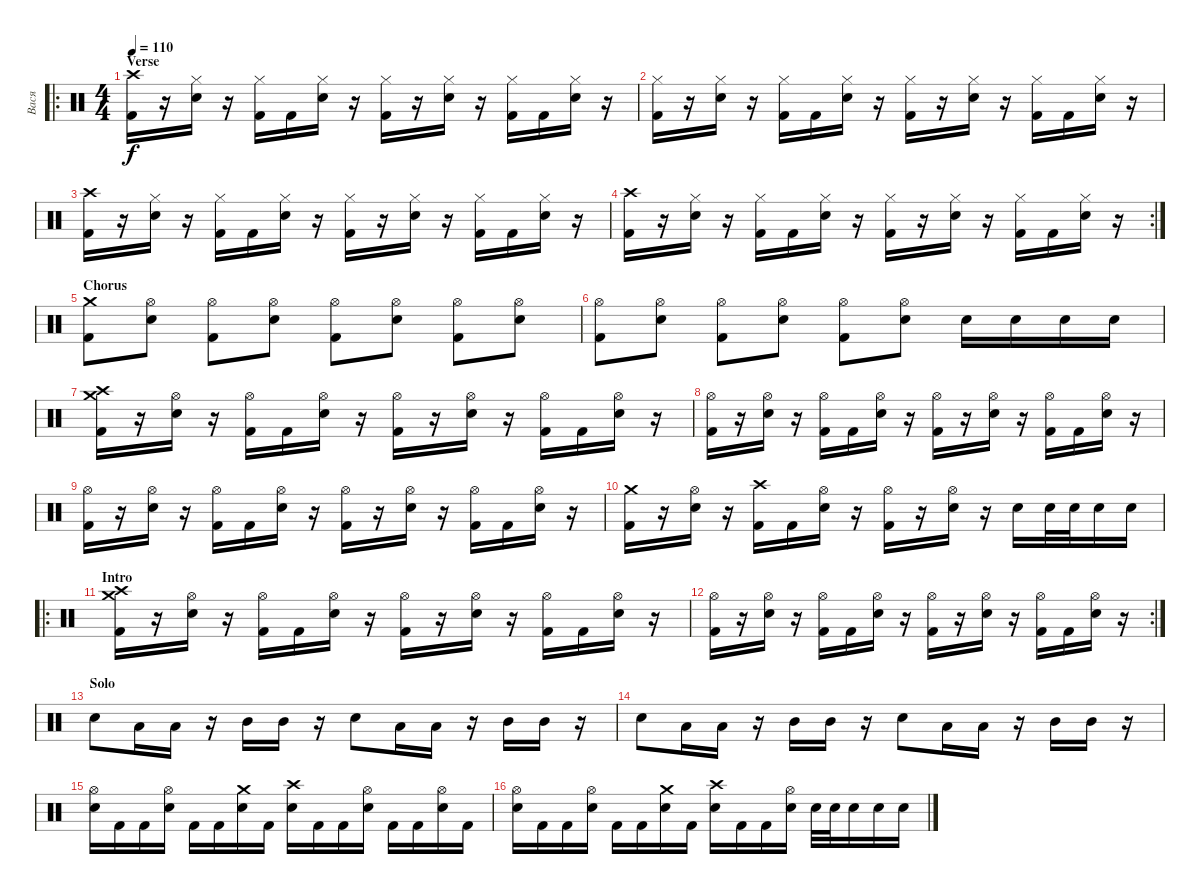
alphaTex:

\track ("Вася" "Вася") {instrument percussion}
\staff {score}
\articulation defaults
\ro
\ts (4 4)
\section ("" "Verse")
\tempo 110
\clef neutral
\ks c
("Crash high (hit)" "Kick (hit) 2").16{dy f} r.16 ("Hi-Hat (closed)" "Electric Snare (hit)").16 r.16 ("Hi-Hat (closed)" "Kick (hit) 2").16 "Kick (hit) 2".16 ("Hi-Hat (closed)" "Electric Snare (hit)").16 r.16 ("Hi-Hat (closed)" "Kick (hit) 2").16 r.16 ("Hi-Hat (closed)" "Electric Snare (hit)").16 r.16 ("Hi-Hat (closed)" "Kick (hit) 2").16 "Kick (hit) 2".16 ("Hi-Hat (closed)" "Electric Snare (hit)").16 r.16 |
("Hi-Hat (closed)" "Kick (hit) 2").16 r.16 ("Hi-Hat (closed)" "Electric Snare (hit)").16 r.16 ("Hi-Hat (closed)" "Kick (hit) 2").16 "Kick (hit) 2".16 ("Hi-Hat (closed)" "Electric Snare (hit)").16 r.16 ("Hi-Hat (closed)" "Kick (hit) 2").16 r.16 ("Hi-Hat (closed)" "Electric Snare (hit)").16 r.16 ("Hi-Hat (closed)" "Kick (hit) 2").16 "Kick (hit) 2".16 ("Hi-Hat (closed)" "Electric Snare (hit)").16 r.16 |
("Crash high (hit)" "Kick (hit) 2").16 r.16 ("Hi-Hat (closed)" "Electric Snare (hit)").16 r.16 ("Hi-Hat (closed)" "Kick (hit) 2").16 "Kick (hit) 2".16 ("Hi-Hat (closed)" "Electric Snare (hit)").16 r.16 ("Hi-Hat (closed)" "Kick (hit) 2").16 r.16 ("Hi-Hat (closed)" "Electric Snare (hit)").16 r.16 ("Hi-Hat (closed)" "Kick (hit) 2").16 "Kick (hit) 2".16 ("Hi-Hat (closed)" "Electric Snare (hit)").16 r.16 |
\rc 2
("Crash high (hit)" "Kick (hit) 2").16 r.16 ("Hi-Hat (closed)" "Electric Snare (hit)").16 r.16 ("Hi-Hat (closed)" "Kick (hit) 2").16 "Kick (hit) 2".16 ("Hi-Hat (closed)" "Electric Snare (hit)").16 r.16 ("Hi-Hat (closed)" "Kick (hit) 2").16 r.16 ("Hi-Hat (closed)" "Electric Snare (hit)").16 r.16 ("Hi-Hat (closed)" "Kick (hit) 2").16 "Kick (hit) 2".16 ("Hi-Hat (closed)" "Electric Snare (hit)").16 r.16 |
\section ("" "Chorus")
("Crash medium (hit)" "Kick (hit) 2").8 ("Hi-Hat (open)" "Electric Snare (hit)").8 ("Hi-Hat (open)" "Kick (hit) 2").8 ("Hi-Hat (open)" "Electric Snare (hit)").8 ("Hi-Hat (open)" "Kick (hit) 2").8 ("Hi-Hat (open)" "Electric Snare (hit)").8 ("Hi-Hat (open)" "Kick (hit) 2").8 ("Hi-Hat (open)" "Electric Snare (hit)").8 |
("Hi-Hat (open)" "Kick (hit) 2").8 ("Hi-Hat (open)" "Electric Snare (hit)").8 ("Hi-Hat (open)" "Kick (hit) 2").8 ("Hi-Hat (open)" "Electric Snare (hit)").8 ("Hi-Hat (open)" "Kick (hit) 2").8 ("Hi-Hat (open)" "Electric Snare (hit)").8 "Electric Snare (hit)".16 "Electric Snare (hit)".16 "Electric Snare (hit)".16 "Electric Snare (hit)".16 |
("Crash medium (hit)" "Crash high (hit)" "Kick (hit) 2").16 r.16 ("Hi-Hat (open)" "Electric Snare (hit)").16 r.16 ("Hi-Hat (open)" "Kick (hit) 2").16 "Kick (hit) 2".16 ("Hi-Hat (open)" "Electric Snare (hit)").16 r.16 ("Hi-Hat (open)" "Kick (hit) 2").16 r.16 ("Hi-Hat (open)" "Electric Snare (hit)").16 r.16 ("Hi-Hat (open)" "Kick (hit) 2").16 "Kick (hit) 2".16 ("Hi-Hat (open)" "Electric Snare (hit)").16 r.16 |
("Hi-Hat (open)" "Kick (hit) 2").16 r.16 ("Hi-Hat (open)" "Electric Snare (hit)").16 r.16 ("Hi-Hat (open)" "Kick (hit) 2").16 "Kick (hit) 2".16 ("Hi-Hat (open)" "Electric Snare (hit)").16 r.16 ("Hi-Hat (open)" "Kick (hit) 2").16 r.16 ("Hi-Hat (open)" "Electric Snare (hit)").16 r.16 ("Hi-Hat (open)" "Kick (hit) 2").16 "Kick (hit) 2".16 ("Hi-Hat (open)" "Electric Snare (hit)").16 r.16 |
("Hi-Hat (open)" "Kick (hit) 2").16 r.16 ("Hi-Hat (open)" "Electric Snare (hit)").16 r.16 ("Hi-Hat (open)" "Kick (hit) 2").16 "Kick (hit) 2".16 ("Hi-Hat (open)" "Electric Snare (hit)").16 r.16 ("Hi-Hat (open)" "Kick (hit) 2").16 r.16 ("Hi-Hat (open)" "Electric Snare (hit)").16 r.16 ("Hi-Hat (open)" "Kick (hit) 2").16 "Kick (hit) 2".16 ("Hi-Hat (open)" "Electric Snare (hit)").16 r.16 |
("Crash medium (hit)" "Kick (hit) 2").16 r.16 ("Hi-Hat (open)" "Electric Snare (hit)").16 r.16 ("Crash high (hit)" "Kick (hit) 2").16 "Kick (hit) 2".16 ("Hi-Hat (open)" "Electric Snare (hit)").16 r.16 ("Hi-Hat (open)" "Kick (hit) 2").16 r.16 ("Hi-Hat (open)" "Electric Snare (hit)").16 r.16 "Electric Snare (hit)".16 "Electric Snare (hit)".32 "Electric Snare (hit)".32 "Electric Snare (hit)".16 "Electric Snare (hit)".16 |
\ro
\section ("" "Intro")
("Crash medium (hit)" "Crash high (hit)" "Kick (hit) 2").16 r.16 ("Hi-Hat (open)" "Electric Snare (hit)").16 r.16 ("Hi-Hat (open)" "Kick (hit) 2").16 "Kick (hit) 2".16 ("Hi-Hat (open)" "Electric Snare (hit)").16 r.16 ("Hi-Hat (open)" "Kick (hit) 2").16 r.16 ("Hi-Hat (open)" "Electric Snare (hit)").16 r.16 ("Hi-Hat (open)" "Kick (hit) 2").16 "Kick (hit) 2".16 ("Hi-Hat (open)" "Electric Snare (hit)").16 r.16 |
\rc 2
("Hi-Hat (open)" "Kick (hit) 2").16 r.16 ("Hi-Hat (open)" "Electric Snare (hit)").16 r.16 ("Hi-Hat (open)" "Kick (hit) 2").16 "Kick (hit) 2".16 ("Hi-Hat (open)" "Electric Snare (hit)").16 r.16 ("Hi-Hat (open)" "Kick (hit) 2").16 r.16 ("Hi-Hat (open)" "Electric Snare (hit)").16 r.16 ("Hi-Hat (open)" "Kick (hit) 2").16 "Kick (hit) 2".16 ("Hi-Hat (open)" "Electric Snare (hit)").16 r.16 |
\section ("" "Solo")
"Electric Snare (hit)".8 "Low Tom (hit)".16 "Low Tom (hit)".16 r.16 "Mid Tom (hit)".16 "Mid Tom (hit)".16 r.16 "Electric Snare (hit)".8 "Low Tom (hit)".16 "Low Tom (hit)".16 r.16 "Mid Tom (hit)".16 "Mid Tom (hit)".16 r.16 |
"Electric Snare (hit)".8 "Low Tom (hit)".16 "Low Tom (hit)".16 r.16 "Mid Tom (hit)".16 "Mid Tom (hit)".16 r.16 "Electric Snare (hit)".8 "Low Tom (hit)".16 "Low Tom (hit)".16 r.16 "Mid Tom (hit)".16 "Mid Tom (hit)".16 r.16 |
("Hi-Hat (open)" "Electric Snare (hit)").16 "Kick (hit) 2".16 "Kick (hit) 2".16 ("Hi-Hat (open)" "Electric Snare (hit)").16 "Kick (hit) 2".16 "Kick (hit) 2".16 ("Crash medium (hit)" "Electric Snare (hit)").16 "Kick (hit) 2".16 ("Crash high (hit)" "Electric Snare (hit)").16 "Kick (hit) 2".16 "Kick (hit) 2".16 ("Hi-Hat (open)" "Electric Snare (hit)").16 "Kick (hit) 2".16 "Kick (hit) 2".16 ("Hi-Hat (open)" "Electric Snare (hit)").16 "Kick (hit) 2".16 |
("Hi-Hat (open)" "Electric Snare (hit)").16 "Kick (hit) 2".16 "Kick (hit) 2".16 ("Hi-Hat (open)" "Electric Snare (hit)").16 "Kick (hit) 2".16 "Kick (hit) 2".16 ("Crash medium (hit)" "Electric Snare (hit)").16 "Kick (hit) 2".16 ("Crash high (hit)" "Electric Snare (hit)").16 "Kick (hit) 2".16 "Kick (hit) 2".16 ("Hi-Hat (open)" "Electric Snare (hit)").16 "Electric Snare (hit)".32 "Electric Snare (hit)".32 "Electric Snare (hit)".16 "Electric Snare (hit)".16 "Electric Snare (hit)".16
